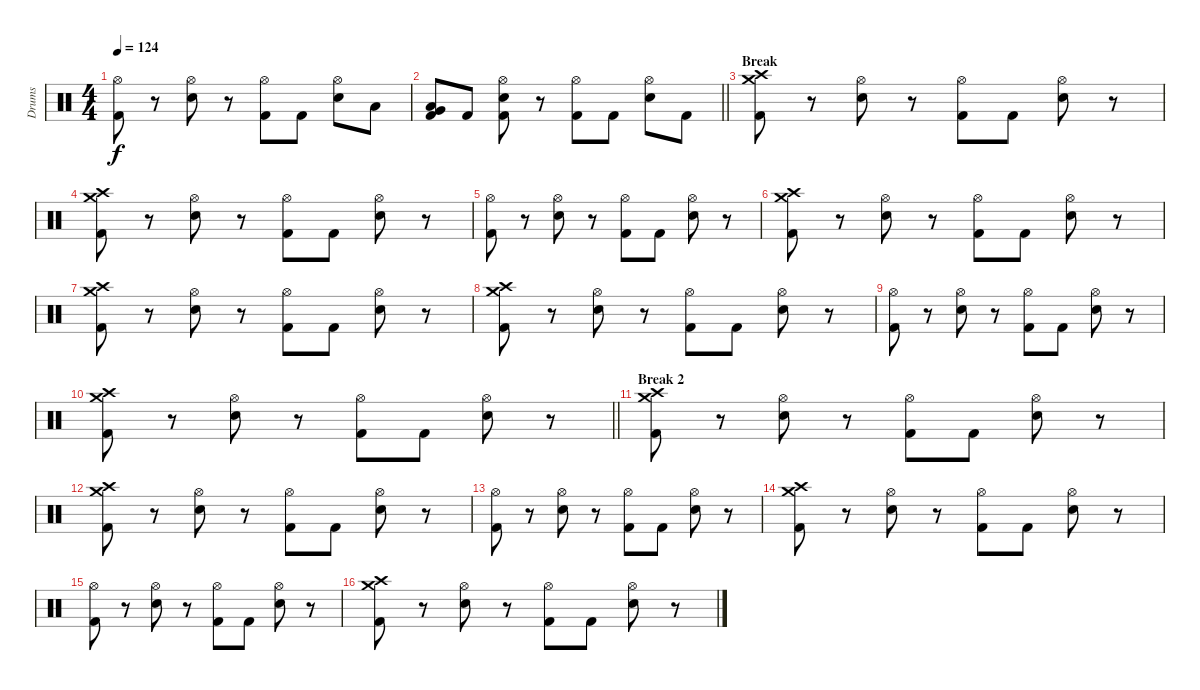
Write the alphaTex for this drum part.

\track ("Drums" "Drums") {instrument percussion}
\staff {score}
\articulation defaults
\ts (4 4)
\tempo 124
\clef neutral
\ks c
("Hi-Hat (open)" "Kick (hit) 2").8{dy f} r.8 ("Hi-Hat (open)" "Electric Snare (hit)").8 r.8 ("Hi-Hat (open)" "Kick (hit) 2").8 "Kick (hit) 2".8 ("Hi-Hat (open)" "Electric Snare (hit)").8 "Low Tom (hit)".8 |
\barLineRight lightlight
("Very Low Tom (hit)" "Low Tom (hit)" "Kick (hit) 2").8 "Kick (hit) 2".8 ("Hi-Hat (open)" "Electric Snare (hit)" "Kick (hit) 2").8 r.8 ("Hi-Hat (open)" "Kick (hit) 2").8 "Kick (hit) 2".8 ("Hi-Hat (open)" "Electric Snare (hit)").8 "Kick (hit) 2".8 |
\section ("" "Break ")
("Crash medium (hit)" "Crash high (hit)" "Kick (hit) 2").8 r.8 ("Hi-Hat (open)" "Electric Snare (hit)").8 r.8 ("Hi-Hat (open)" "Kick (hit) 2").8 "Kick (hit) 2".8 ("Hi-Hat (open)" "Electric Snare (hit)").8 r.8 |
("Crash medium (hit)" "Crash high (hit)" "Kick (hit) 2").8 r.8 ("Hi-Hat (open)" "Electric Snare (hit)").8 r.8 ("Hi-Hat (open)" "Kick (hit) 2").8 "Kick (hit) 2".8 ("Hi-Hat (open)" "Electric Snare (hit)").8 r.8 |
("Hi-Hat (open)" "Kick (hit) 2").8 r.8 ("Hi-Hat (open)" "Electric Snare (hit)").8 r.8 ("Hi-Hat (open)" "Kick (hit) 2").8 "Kick (hit) 2".8 ("Hi-Hat (open)" "Electric Snare (hit)").8 r.8 |
("Crash medium (hit)" "Crash high (hit)" "Kick (hit) 2").8 r.8 ("Hi-Hat (open)" "Electric Snare (hit)").8 r.8 ("Hi-Hat (open)" "Kick (hit) 2").8 "Kick (hit) 2".8 ("Hi-Hat (open)" "Electric Snare (hit)").8 r.8 |
("Crash medium (hit)" "Crash high (hit)" "Kick (hit) 2").8 r.8 ("Hi-Hat (open)" "Electric Snare (hit)").8 r.8 ("Hi-Hat (open)" "Kick (hit) 2").8 "Kick (hit) 2".8 ("Hi-Hat (open)" "Electric Snare (hit)").8 r.8 |
("Crash medium (hit)" "Crash high (hit)" "Kick (hit) 2").8 r.8 ("Hi-Hat (open)" "Electric Snare (hit)").8 r.8 ("Hi-Hat (open)" "Kick (hit) 2").8 "Kick (hit) 2".8 ("Hi-Hat (open)" "Electric Snare (hit)").8 r.8 |
("Hi-Hat (open)" "Kick (hit) 2").8 r.8 ("Hi-Hat (open)" "Electric Snare (hit)").8 r.8 ("Hi-Hat (open)" "Kick (hit) 2").8 "Kick (hit) 2".8 ("Hi-Hat (open)" "Electric Snare (hit)").8 r.8 |
\barLineRight lightlight
("Crash medium (hit)" "Crash high (hit)" "Kick (hit) 2").8 r.8 ("Hi-Hat (open)" "Electric Snare (hit)").8 r.8 ("Hi-Hat (open)" "Kick (hit) 2").8 "Kick (hit) 2".8 ("Hi-Hat (open)" "Electric Snare (hit)").8 r.8 |
\section ("" "Break 2")
("Crash medium (hit)" "Crash high (hit)" "Kick (hit) 2").8 r.8 ("Hi-Hat (open)" "Electric Snare (hit)").8 r.8 ("Hi-Hat (open)" "Kick (hit) 2").8 "Kick (hit) 2".8 ("Hi-Hat (open)" "Electric Snare (hit)").8 r.8 |
("Crash medium (hit)" "Crash high (hit)" "Kick (hit) 2").8 r.8 ("Hi-Hat (open)" "Electric Snare (hit)").8 r.8 ("Hi-Hat (open)" "Kick (hit) 2").8 "Kick (hit) 2".8 ("Hi-Hat (open)" "Electric Snare (hit)").8 r.8 |
("Hi-Hat (open)" "Kick (hit) 2").8 r.8 ("Hi-Hat (open)" "Electric Snare (hit)").8 r.8 ("Hi-Hat (open)" "Kick (hit) 2").8 "Kick (hit) 2".8 ("Hi-Hat (open)" "Electric Snare (hit)").8 r.8 |
("Crash medium (hit)" "Crash high (hit)" "Kick (hit) 2").8 r.8 ("Hi-Hat (open)" "Electric Snare (hit)").8 r.8 ("Hi-Hat (open)" "Kick (hit) 2").8 "Kick (hit) 2".8 ("Hi-Hat (open)" "Electric Snare (hit)").8 r.8 |
("Hi-Hat (open)" "Kick (hit) 2").8 r.8 ("Hi-Hat (open)" "Electric Snare (hit)").8 r.8 ("Hi-Hat (open)" "Kick (hit) 2").8 "Kick (hit) 2".8 ("Hi-Hat (open)" "Electric Snare (hit)").8 r.8 |
("Crash medium (hit)" "Crash high (hit)" "Kick (hit) 2").8 r.8 ("Hi-Hat (open)" "Electric Snare (hit)").8 r.8 ("Hi-Hat (open)" "Kick (hit) 2").8 "Kick (hit) 2".8 ("Hi-Hat (open)" "Electric Snare (hit)").8 r.8
